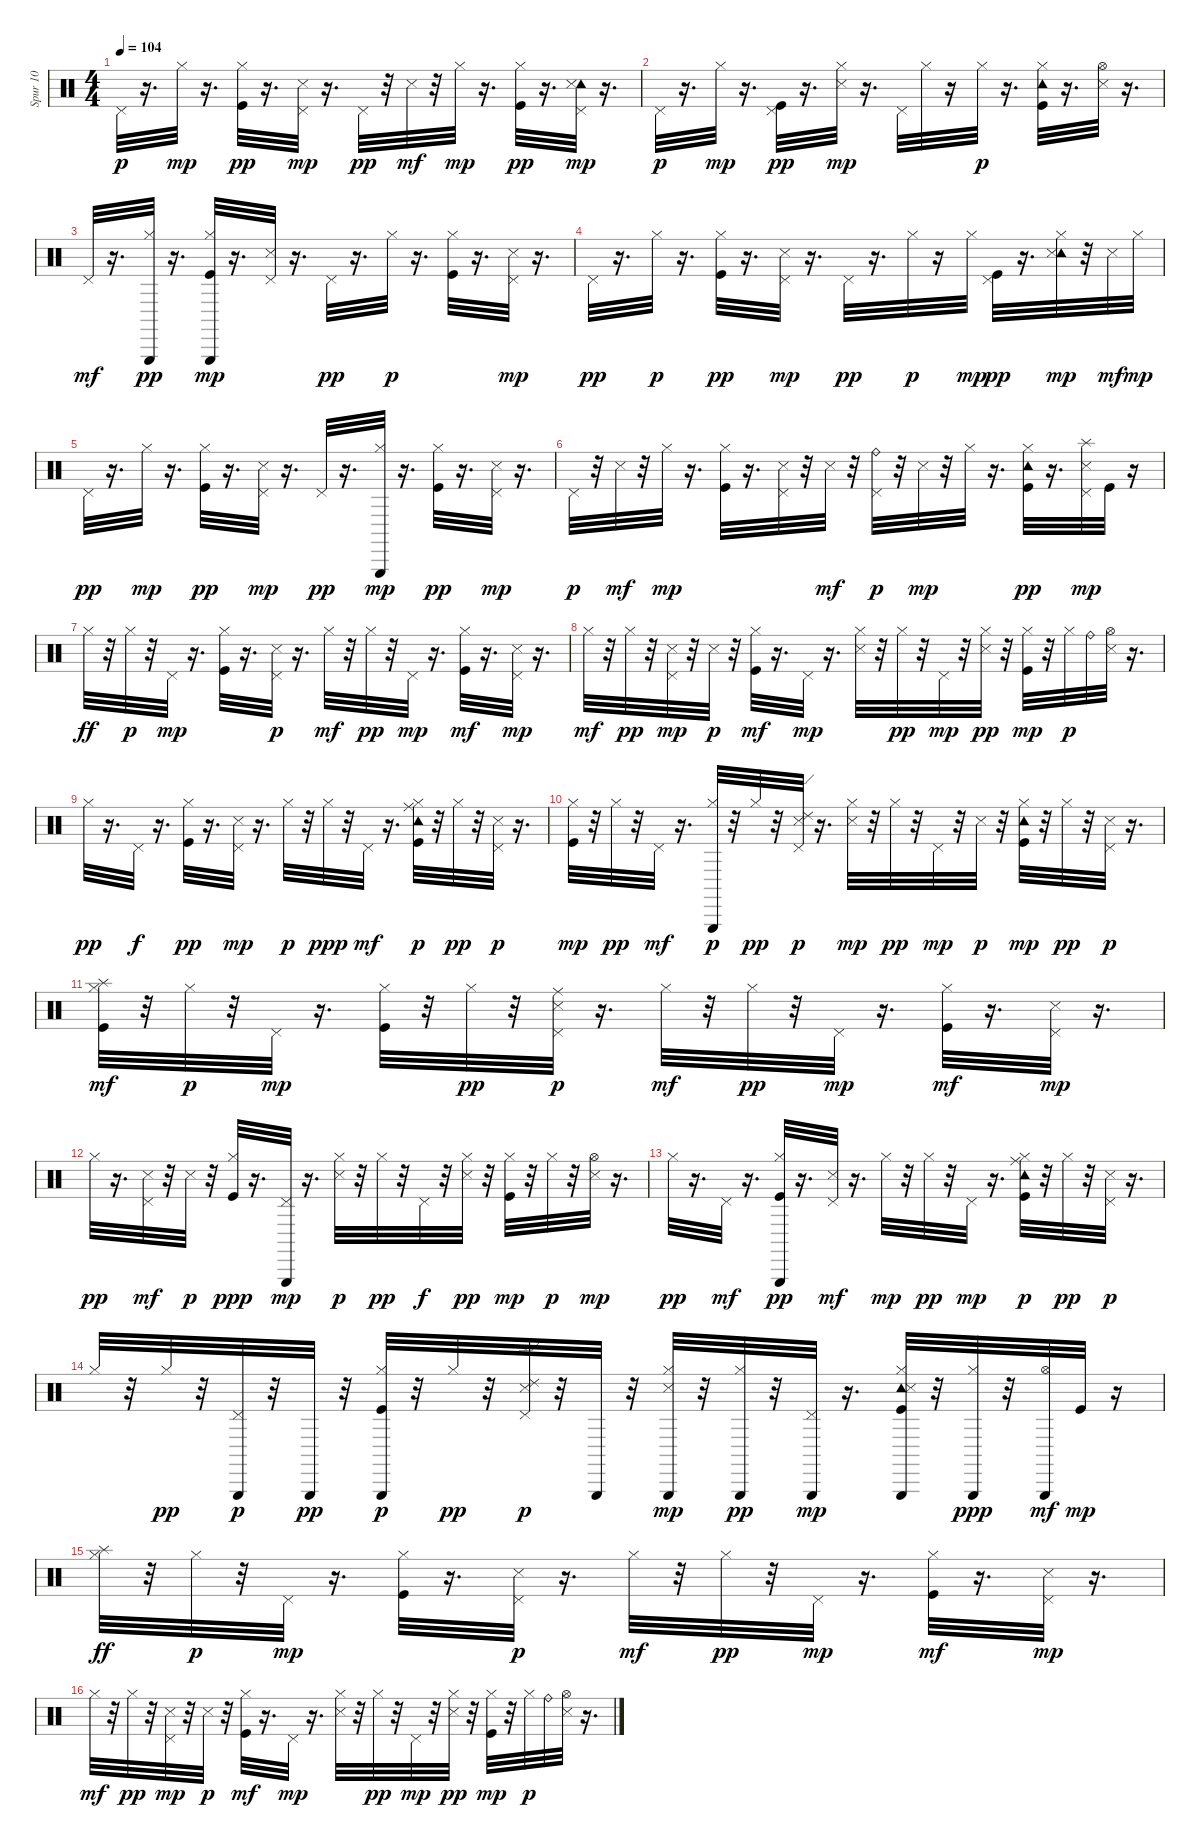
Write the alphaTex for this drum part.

\track ("Spur 10" "Spur 10") {instrument percussion}
\staff {score}
\articulation defaults
\ts (4 4)
\tempo 104
\clef neutral
\ks c "Pedal Hi-Hat (hit)".32{dy p}
r.16{d} "Hi-Hat (closed)".32{dy mp} r.16{d} ("Kick (hit)" "Hi-Hat (closed)").32{dy pp} r.16{d} ("Pedal Hi-Hat (hit)" "Snare (side stick) 3").32{dy mp} r.16{d} "Pedal Hi-Hat (hit)".32{dy pp} r.32 "Snare (side stick) 3".32{dy mf} r.32 "Hi-Hat (closed)".32{dy mp} r.16{d} ("Kick (hit)" "Hi-Hat (closed)").32{dy pp} r.16{d} ("Tambourine (hit)" "Pedal Hi-Hat (hit)" "Snare (side stick) 3").32{dy mp} r.16{d} |
"Pedal Hi-Hat (hit)".32{dy p} r.16{d} "Hi-Hat (closed)".32{dy mp} r.16{d} ("Kick (hit)" "Pedal Hi-Hat (hit)").32{dy pp} r.16{d} ("Hi-Hat (closed)" "Snare (side stick) 3").32{dy mp} r.16{d} "Pedal Hi-Hat (hit)".32 "Hi-Hat (closed)".32 r.16 "Hi-Hat (closed)".32{dy p} r.16{d} ("Kick (hit)" "Hi-Hat (closed)" "Tambourine (hit)").32 r.16{d} ("Hi-Hat (open)" "Snare (side stick) 3").32 r.16{d} |
"Pedal Hi-Hat (hit)".32{dy mf} r.16{d} ("Hi-Hat (closed)" "Triangle (hit)").32{dy pp} r.16{d} ("Kick (hit)" "Hi-Hat (closed)" "Triangle (hit)").32{dy mp} r.16{d} ("Pedal Hi-Hat (hit)" "Snare (side stick) 3").32 r.16{d} "Pedal Hi-Hat (hit)".32{dy pp} r.16{d} "Hi-Hat (closed)".32{dy p} r.16{d} ("Kick (hit)" "Hi-Hat (closed)").32 r.16{d} ("Pedal Hi-Hat (hit)" "Snare (side stick) 3").32{dy mp} r.16{d} |
"Pedal Hi-Hat (hit)".32{dy pp} r.16{d} "Hi-Hat (closed)".32{dy p} r.16{d} ("Kick (hit)" "Hi-Hat (closed)").32{dy pp} r.16{d} ("Pedal Hi-Hat (hit)" "Snare (side stick) 3").32{dy mp} r.16{d} "Pedal Hi-Hat (hit)".32{dy pp} r.16{d} "Hi-Hat (closed)".32{dy p} r.16 "Hi-Hat (closed)".32{dy mp} ("Kick (hit)" "Pedal Hi-Hat (hit)").32{dy pp} r.16{d} ("Tambourine (hit)" "Snare (side stick) 3" "Hi-Hat (closed)").32{dy mp} r.32 "Snare (side stick) 3".32{dy mf} "Hi-Hat (closed)".32{dy mp} |
"Pedal Hi-Hat (hit)".32{dy pp} r.16{d} "Hi-Hat (closed)".32{dy mp} r.16{d} ("Kick (hit)" "Hi-Hat (closed)").32{dy pp} r.16{d} ("Pedal Hi-Hat (hit)" "Snare (side stick) 3").32{dy mp} r.16{d} "Pedal Hi-Hat (hit)".32{dy pp} r.16{d} ("Triangle (hit)" "Hi-Hat (closed)").32{dy mp} r.16{d} ("Kick (hit)" "Hi-Hat (closed)").32{dy pp} r.16{d} ("Pedal Hi-Hat (hit)" "Snare (side stick) 3").32{dy mp} r.16{d} |
"Pedal Hi-Hat (hit)".32{dy p} r.32 "Snare (side stick) 3".32{dy mf} r.32 "Hi-Hat (closed)".32{dy mp} r.16{d} ("Kick (hit)" "Hi-Hat (closed)").32 r.16{d} ("Pedal Hi-Hat (hit)" "Snare (side stick) 3").32 r.32 "Snare (side stick) 3".32{dy mf} r.32 ("Pedal Hi-Hat (hit)" "Ride (bell)").32{dy p} r.32 "Snare (side stick) 3".32{dy mp} r.32 "Hi-Hat (closed)".32 r.16{d} ("Kick (hit)" "Hi-Hat (closed)" "Tambourine (hit)").32{dy pp} r.16{d} ("Splash (hit)" "Pedal Hi-Hat (hit)" "Snare (side stick) 3").32{dy mp} "Kick (hit)".32 r.16 |
"Hi-Hat (closed)".32{dy ff} r.32 "Hi-Hat (closed)".32{dy p} r.32 "Pedal Hi-Hat (hit)".32{dy mp} r.16{d} ("Kick (hit)" "Hi-Hat (closed)").32 r.16{d} ("Snare (side stick) 3" "Pedal Hi-Hat (hit)").32{dy p} r.16{d} "Hi-Hat (closed)".32{dy mf} r.32 "Hi-Hat (closed)".32{dy pp} r.32 "Pedal Hi-Hat (hit)".32{dy mp} r.16{d} ("Kick (hit)" "Hi-Hat (closed)").32{dy mf} r.16{d} ("Snare (side stick) 3" "Pedal Hi-Hat (hit)").32{dy mp} r.16{d} |
"Hi-Hat (closed)".32{dy mf} r.32 "Hi-Hat (closed)".32{dy pp} r.32 ("Snare (side stick) 3" "Pedal Hi-Hat (hit)").32{dy mp} r.32 "Snare (side stick) 3".32{dy p} r.32 ("Kick (hit)" "Hi-Hat (closed)").32{dy mf} r.16{d} "Pedal Hi-Hat (hit)".32{dy mp} r.16{d} ("Snare (side stick) 3" "Hi-Hat (closed)").32 r.32 "Hi-Hat (closed)".32{dy pp} r.32 "Pedal Hi-Hat (hit)".32{dy mp} r.32 ("Snare (side stick) 3" "Hi-Hat (closed)").32{dy pp} r.32 ("Kick (hit)" "Hi-Hat (closed)").32{dy mp} r.32 "Hi-Hat (closed)".32{dy p} "Ride (bell)".32 ("Snare (side stick) 3" "Hi-Hat (open)").32 r.16{d} |
"Hi-Hat (closed)".32{dy pp} r.16{d} "Pedal Hi-Hat (hit)".32{dy f} r.16{d} ("Kick (hit)" "Hi-Hat (closed)").32{dy pp} r.16{d} ("Snare (side stick) 3" "Pedal Hi-Hat (hit)").32{dy mp} r.16{d} "Hi-Hat (closed)".32{dy p} r.32 "Hi-Hat (closed)".32{dy ppp} r.32 "Pedal Hi-Hat (hit)".32{dy mf} r.16{d} ("Ride (middle)" "Tambourine (hit)" "Kick (hit)" "Hi-Hat (closed)").32{dy p} r.32 "Hi-Hat (closed)".32{dy pp} r.32 ("Pedal Hi-Hat (hit)" "Snare (side stick) 3").32{dy p} r.16{d} |
("Kick (hit)" "Hi-Hat (closed)").32{dy mp} r.32 "Hi-Hat (closed)".32{dy pp} r.32 "Pedal Hi-Hat (hit)".32{dy mf} r.16{d} ("Triangle (hit)" "Hi-Hat (closed)").32{dy p} r.32 "Hi-Hat (closed)".32{dy pp} r.32 ("Snare (side stick) 3" "Pedal Hi-Hat (hit)" "Ride (edge) 2").32{dy p} r.16{d} ("Snare (side stick) 3" "Hi-Hat (closed)").32{dy mp} r.32 "Hi-Hat (closed)".32{dy pp} r.32 "Pedal Hi-Hat (hit)".32{dy mp} r.32 "Snare (side stick) 3".32{dy p} r.32 ("Tambourine (hit)" "Kick (hit)" "Hi-Hat (closed)").32{dy mp} r.32 "Hi-Hat (closed)".32{dy pp} r.32 ("Snare (side stick) 3" "Pedal Hi-Hat (hit)").32{dy p} r.16{d} |
("Hi-Hat (closed)" "Kick (hit)" "Splash (hit)").32{dy mf} r.32 "Hi-Hat (closed)".32{dy p} r.32 "Pedal Hi-Hat (hit)".32{dy mp} r.16{d} ("Kick (hit)" "Hi-Hat (closed)").32 r.32 "Hi-Hat (closed)".32{dy pp} r.32 ("Ride (middle)" "Snare (side stick) 3" "Pedal Hi-Hat (hit)").32{dy p} r.16{d} "Hi-Hat (closed)".32{dy mf} r.32 "Hi-Hat (closed)".32{dy pp} r.32 "Pedal Hi-Hat (hit)".32{dy mp} r.16{d} ("Kick (hit)" "Hi-Hat (closed)").32{dy mf} r.16{d} ("Snare (side stick) 3" "Pedal Hi-Hat (hit)").32{dy mp} r.16{d} |
"Hi-Hat (closed)".32{dy pp} r.16{d} ("Snare (side stick) 3" "Pedal Hi-Hat (hit)").32{dy mf} r.32 "Snare (side stick) 3".32{dy p} r.32 ("Kick (hit)" "Hi-Hat (closed)").32{dy ppp} r.16{d} ("Pedal Hi-Hat (hit)" "Triangle (hit)").32{dy mp} r.16{d} ("Snare (side stick) 3" "Hi-Hat (closed)").32{dy p} r.32 "Hi-Hat (closed)".32{dy pp} r.32 "Pedal Hi-Hat (hit)".32{dy f} r.32 ("Snare (side stick) 3" "Hi-Hat (closed)").32{dy pp} r.32 ("Kick (hit)" "Hi-Hat (closed)").32{dy mp} r.32 "Hi-Hat (closed)".32{dy p} r.32 ("Snare (side stick) 3" "Hi-Hat (open)").32{dy mp} r.16{d} |
"Hi-Hat (closed)".32{dy pp} r.16{d} "Pedal Hi-Hat (hit)".32{dy mf} r.16{d} ("Triangle (hit)" "Kick (hit)" "Hi-Hat (closed)").32{dy pp} r.16{d} ("Snare (side stick) 3" "Pedal Hi-Hat (hit)").32{dy mf} r.16{d} "Hi-Hat (closed)".32{dy mp} r.32 "Hi-Hat (closed)".32{dy pp} r.32 "Pedal Hi-Hat (hit)".32{dy mp} r.16{d} ("Ride (middle)" "Tambourine (hit)" "Kick (hit)" "Hi-Hat (closed)").32{dy p} r.32 "Hi-Hat (closed)".32{dy pp} r.32 ("Pedal Hi-Hat (hit)" "Snare (side stick) 3").32{dy p} r.16{d} |
"Hi-Hat (closed)".32 r.32 "Hi-Hat (closed)".32{dy pp} r.32 ("Pedal Hi-Hat (hit)" "Triangle (hit)").32{dy p} r.32 "Triangle (hit)".32{dy pp} r.32 ("Kick (hit)" "Hi-Hat (closed)" "Triangle (hit)").32{dy p} r.32 "Hi-Hat (closed)".32{dy pp} r.32 ("Snare (side stick) 3" "Pedal Hi-Hat (hit)" "Ride (edge) 2").32{dy p} r.32 "Triangle (hit)".32 r.32 ("Triangle (hit)" "Snare (side stick) 3" "Hi-Hat (closed)").32{dy mp} r.32 ("Hi-Hat (closed)" "Triangle (hit)").32{dy pp} r.32 ("Pedal Hi-Hat (hit)" "Triangle (hit)").32{dy mp} r.16{d} ("Tambourine (hit)" "Snare (side stick) 3" "Kick (hit)" "Hi-Hat (closed)" "Triangle (hit)").32 r.32 ("Triangle (hit)" "Hi-Hat (closed)").32{dy ppp} r.32 ("Hi-Hat (open)" "Triangle (hit)").32{dy mf} "Kick (hit)".32{dy mp} r.16 |
("Hi-Hat (closed)" "Splash (hit)").32{dy ff} r.32 "Hi-Hat (closed)".32{dy p} r.32 "Pedal Hi-Hat (hit)".32{dy mp} r.16{d} ("Kick (hit)" "Hi-Hat (closed)").32 r.16{d} ("Snare (side stick) 3" "Pedal Hi-Hat (hit)").32{dy p} r.16{d} "Hi-Hat (closed)".32{dy mf} r.32 "Hi-Hat (closed)".32{dy pp} r.32 "Pedal Hi-Hat (hit)".32{dy mp} r.16{d} ("Kick (hit)" "Hi-Hat (closed)").32{dy mf} r.16{d} ("Snare (side stick) 3" "Pedal Hi-Hat (hit)").32{dy mp} r.16{d} |
"Hi-Hat (closed)".32{dy mf} r.32 "Hi-Hat (closed)".32{dy pp} r.32 ("Snare (side stick) 3" "Pedal Hi-Hat (hit)").32{dy mp} r.32 "Snare (side stick) 3".32{dy p} r.32 ("Kick (hit)" "Hi-Hat (closed)").32{dy mf} r.16{d} "Pedal Hi-Hat (hit)".32{dy mp} r.16{d} ("Snare (side stick) 3" "Hi-Hat (closed)").32 r.32 "Hi-Hat (closed)".32{dy pp} r.32 "Pedal Hi-Hat (hit)".32{dy mp} r.32 ("Snare (side stick) 3" "Hi-Hat (closed)").32{dy pp} r.32 ("Kick (hit)" "Hi-Hat (closed)").32{dy mp} r.32 "Hi-Hat (closed)".32{dy p} "Ride (bell)".32 ("Snare (side stick) 3" "Hi-Hat (open)").32 r.16{d}
